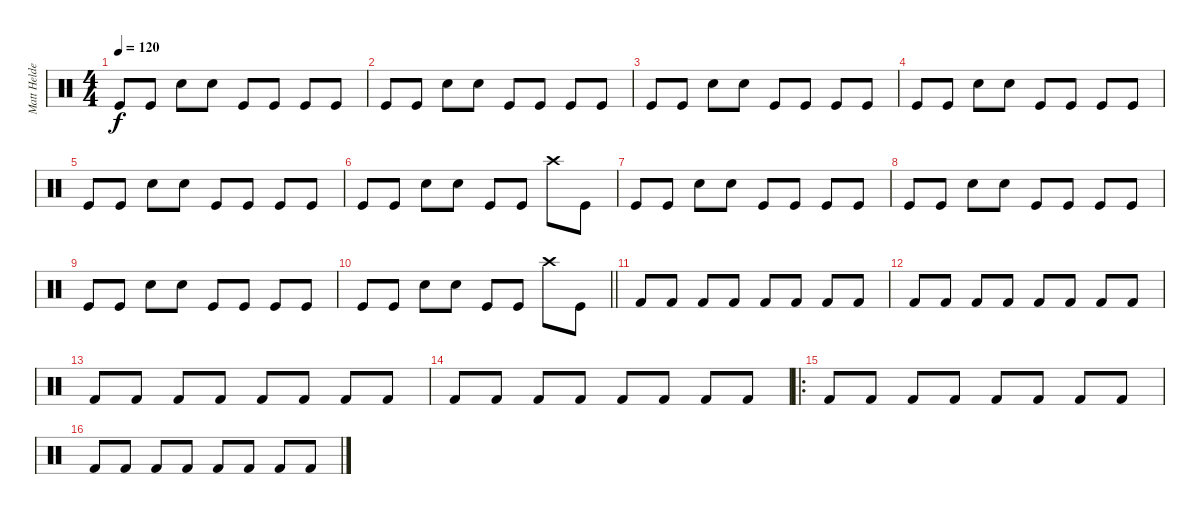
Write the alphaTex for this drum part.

\track ("Matt Helders" "Matt Helde") {instrument percussion}
\staff {score}
\articulation defaults
\ts (4 4)
\tempo 120
\clef neutral
\ks c "Kick (hit)".8{dy f} "Kick (hit)".8 "Electric Snare (hit)".8 "Electric Snare (hit)".8 "Kick (hit)".8 "Kick (hit)".8 "Kick (hit)".8 "Kick (hit)".8
|
"Kick (hit)".8 "Kick (hit)".8 "Electric Snare (hit)".8 "Electric Snare (hit)".8 "Kick (hit)".8 "Kick (hit)".8 "Kick (hit)".8 "Kick (hit)".8 |
"Kick (hit)".8 "Kick (hit)".8 "Electric Snare (hit)".8 "Electric Snare (hit)".8 "Kick (hit)".8 "Kick (hit)".8 "Kick (hit)".8 "Kick (hit)".8 |
"Kick (hit)".8 "Kick (hit)".8 "Electric Snare (hit)".8 "Electric Snare (hit)".8 "Kick (hit)".8 "Kick (hit)".8 "Kick (hit)".8 "Kick (hit)".8 |
"Kick (hit)".8 "Kick (hit)".8 "Electric Snare (hit)".8 "Electric Snare (hit)".8 "Kick (hit)".8 "Kick (hit)".8 "Kick (hit)".8 "Kick (hit)".8 |
"Kick (hit)".8 "Kick (hit)".8 "Electric Snare (hit)".8 "Electric Snare (hit)".8 "Kick (hit)".8 "Kick (hit)".8 "Crash high (hit)".8 "Kick (hit)".8 |
"Kick (hit)".8 "Kick (hit)".8 "Electric Snare (hit)".8 "Electric Snare (hit)".8 "Kick (hit)".8 "Kick (hit)".8 "Kick (hit)".8 "Kick (hit)".8 |
"Kick (hit)".8 "Kick (hit)".8 "Electric Snare (hit)".8 "Electric Snare (hit)".8 "Kick (hit)".8 "Kick (hit)".8 "Kick (hit)".8 "Kick (hit)".8 |
"Kick (hit)".8 "Kick (hit)".8 "Electric Snare (hit)".8 "Electric Snare (hit)".8 "Kick (hit)".8 "Kick (hit)".8 "Kick (hit)".8 "Kick (hit)".8 |
\barLineRight lightlight "Kick (hit)".8 "Kick (hit)".8 "Electric Snare (hit)".8 "Electric Snare (hit)".8 "Kick (hit)".8 "Kick (hit)".8 "Crash high (hit)".8 "Kick (hit)".8
|
\section ("" "")
"Kick (hit) 2".8 "Kick (hit) 2".8 "Kick (hit) 2".8 "Kick (hit) 2".8 "Kick (hit) 2".8 "Kick (hit) 2".8 "Kick (hit) 2".8 "Kick (hit) 2".8 |
"Kick (hit) 2".8 "Kick (hit) 2".8 "Kick (hit) 2".8 "Kick (hit) 2".8 "Kick (hit) 2".8 "Kick (hit) 2".8 "Kick (hit) 2".8 "Kick (hit) 2".8 |
"Kick (hit) 2".8 "Kick (hit) 2".8 "Kick (hit) 2".8 "Kick (hit) 2".8 "Kick (hit) 2".8 "Kick (hit) 2".8 "Kick (hit) 2".8 "Kick (hit) 2".8 |
"Kick (hit) 2".8 "Kick (hit) 2".8 "Kick (hit) 2".8 "Kick (hit) 2".8 "Kick (hit) 2".8 "Kick (hit) 2".8 "Kick (hit) 2".8 "Kick (hit) 2".8 |
\ro "Kick (hit) 2".8 "Kick (hit) 2".8 "Kick (hit) 2".8 "Kick (hit) 2".8 "Kick (hit) 2".8 "Kick (hit) 2".8 "Kick (hit) 2".8 "Kick (hit) 2".8
|
"Kick (hit) 2".8 "Kick (hit) 2".8 "Kick (hit) 2".8 "Kick (hit) 2".8 "Kick (hit) 2".8 "Kick (hit) 2".8 "Kick (hit) 2".8 "Kick (hit) 2".8
